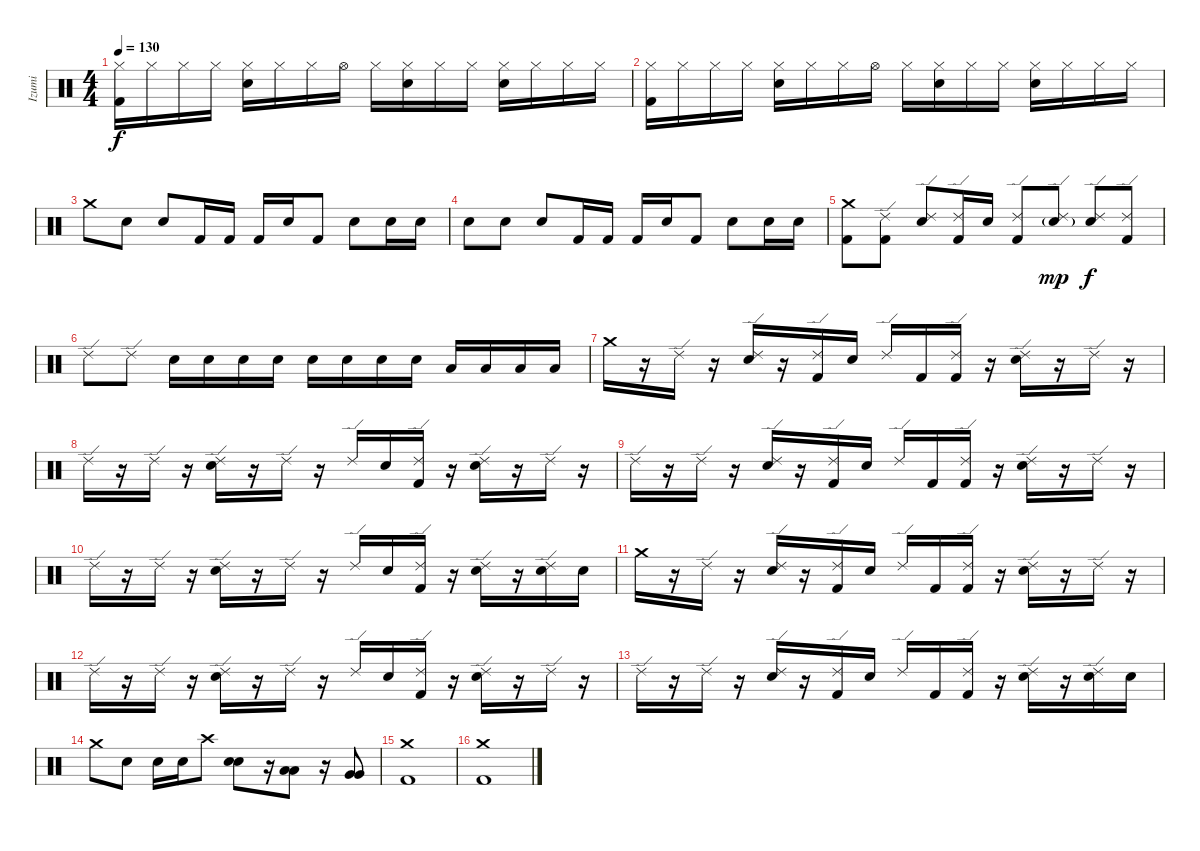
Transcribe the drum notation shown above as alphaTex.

\track ("Izumi" "Izumi") {instrument percussion}
\staff {score}
\articulation defaults
\ts (4 4)
\tempo 130
\clef neutral
\ks c
("Kick (hit) 2" "Hi-Hat (closed)").16{dy f} "Hi-Hat (closed)".16 "Hi-Hat (closed)".16 "Hi-Hat (closed)".16 ("Snare (hit) 2" "Hi-Hat (closed)").16 "Hi-Hat (closed)".16 "Hi-Hat (closed)".16 "Hi-Hat (open)".16 "Hi-Hat (closed)".16 ("Snare (hit) 2" "Hi-Hat (closed)").16 "Hi-Hat (closed)".16 "Hi-Hat (closed)".16 ("Snare (hit) 2" "Hi-Hat (closed)").16 "Hi-Hat (closed)".16 "Hi-Hat (closed)".16 "Hi-Hat (closed)".16 |
("Kick (hit) 2" "Hi-Hat (closed)").16 "Hi-Hat (closed)".16 "Hi-Hat (closed)".16 "Hi-Hat (closed)".16 ("Snare (hit) 2" "Hi-Hat (closed)").16 "Hi-Hat (closed)".16 "Hi-Hat (closed)".16 "Hi-Hat (open)".16 "Hi-Hat (closed)".16 ("Snare (hit) 2" "Hi-Hat (closed)").16 "Hi-Hat (closed)".16 "Hi-Hat (closed)".16 ("Snare (hit) 2" "Hi-Hat (closed)").16 "Hi-Hat (closed)".16 "Hi-Hat (closed)".16 "Hi-Hat (closed)".16 |
"Crash medium (hit)".8 "Snare (hit) 2".8 "Snare (hit) 2".8 "Kick (hit) 2".16 "Kick (hit) 2".16 "Kick (hit) 2".16 "Snare (hit) 2".16 "Kick (hit) 2".8 "Snare (hit) 2".8 "Snare (hit) 2".16 "Snare (hit) 2".16 |
"Snare (hit) 2".8 "Snare (hit) 2".8 "Snare (hit) 2".8 "Kick (hit) 2".16 "Kick (hit) 2".16 "Kick (hit) 2".16 "Snare (hit) 2".16 "Kick (hit) 2".8 "Snare (hit) 2".8 "Snare (hit) 2".16 "Snare (hit) 2".16 |
("Kick (hit) 2" "Crash medium (hit)").8 ("Kick (hit) 2" "Ride (edge) 2").8 ("Snare (hit) 2" "Ride (edge) 2").8 ("Kick (hit) 2" "Ride (edge) 2").16 "Snare (hit) 2".16 ("Kick (hit) 2" "Ride (edge) 2").8 ("Snare (hit) 2"{g} "Ride (edge) 2").8{dy mp} ("Snare (hit) 2" "Ride (edge) 2").8{dy f} ("Kick (hit) 2" "Ride (edge) 2").8 |
"Ride (edge) 2".8 "Ride (edge) 2".8 "Snare (hit) 2".16 "Snare (hit) 2".16 "Snare (hit) 2".16 "Snare (hit) 2".16 "Snare (hit) 2".16 "Snare (hit) 2".16 "Snare (hit) 2".16 "Snare (hit) 2".16 "Low Tom (hit)".16 "Low Tom (hit)".16 "Low Tom (hit)".16 "Low Tom (hit)".16 |
"Crash medium (hit)".16 r.16 "Ride (edge) 2".16 r.16 ("Snare (hit) 2" "Ride (edge) 2").16 r.16 ("Kick (hit) 2" "Ride (edge) 2").16 "Snare (hit) 2".16 "Ride (edge) 2".16 "Kick (hit) 2".16 ("Kick (hit) 2" "Ride (edge) 2").16 r.16 ("Snare (hit) 2" "Ride (edge) 2").16 r.16 "Ride (edge) 2".16 r.16 |
"Ride (edge) 2".16 r.16 "Ride (edge) 2".16 r.16 ("Snare (hit) 2" "Ride (edge) 2").16 r.16 "Ride (edge) 2".16 r.16 "Ride (edge) 2".16 "Snare (hit) 2".16 ("Kick (hit) 2" "Ride (edge) 2").16 r.16 ("Snare (hit) 2" "Ride (edge) 2").16 r.16 "Ride (edge) 2".16 r.16 |
"Ride (edge) 2".16 r.16 "Ride (edge) 2".16 r.16 ("Snare (hit) 2" "Ride (edge) 2").16 r.16 ("Kick (hit) 2" "Ride (edge) 2").16 "Snare (hit) 2".16 "Ride (edge) 2".16 "Kick (hit) 2".16 ("Kick (hit) 2" "Ride (edge) 2").16 r.16 ("Snare (hit) 2" "Ride (edge) 2").16 r.16 "Ride (edge) 2".16 r.16 |
"Ride (edge) 2".16 r.16 "Ride (edge) 2".16 r.16 ("Snare (hit) 2" "Ride (edge) 2").16 r.16 "Ride (edge) 2".16 r.16 "Ride (edge) 2".16 "Snare (hit) 2".16 ("Kick (hit) 2" "Ride (edge) 2").16 r.16 ("Snare (hit) 2" "Ride (edge) 2").16 r.16 ("Snare (hit) 2" "Ride (edge) 2").16 "Snare (hit) 2".16 |
"Crash medium (hit)".16 r.16 "Ride (edge) 2".16 r.16 ("Snare (hit) 2" "Ride (edge) 2").16 r.16 ("Kick (hit) 2" "Ride (edge) 2").16 "Snare (hit) 2".16 "Ride (edge) 2".16 "Kick (hit) 2".16 ("Kick (hit) 2" "Ride (edge) 2").16 r.16 ("Snare (hit) 2" "Ride (edge) 2").16 r.16 "Ride (edge) 2".16 r.16 |
"Ride (edge) 2".16 r.16 "Ride (edge) 2".16 r.16 ("Snare (hit) 2" "Ride (edge) 2").16 r.16 "Ride (edge) 2".16 r.16 "Ride (edge) 2".16 "Snare (hit) 2".16 ("Kick (hit) 2" "Ride (edge) 2").16 r.16 ("Snare (hit) 2" "Ride (edge) 2").16 r.16 "Ride (edge) 2".16 r.16 |
"Ride (edge) 2".16 r.16 "Ride (edge) 2".16 r.16 ("Snare (hit) 2" "Ride (edge) 2").16 r.16 ("Kick (hit) 2" "Ride (edge) 2").16 "Snare (hit) 2".16 "Ride (edge) 2".16 "Kick (hit) 2".16 ("Kick (hit) 2" "Ride (edge) 2").16 r.16 ("Snare (hit) 2" "Ride (edge) 2").16 r.16 ("Snare (hit) 2" "Ride (edge) 2").16 "Snare (hit) 2".16 |
"Crash medium (hit)".8 "Snare (hit) 2".8 "Snare (hit) 2".16 "Snare (hit) 2".16 "Crash high (hit)".8 ("Snare (hit) 2" "Snare (hit) 2").8 r.16 ("Low Tom (hit)" "Low Tom (hit)").8 r.16 ("Very Low Tom (hit)" "Very Low Tom (hit)").8 |
("Kick (hit) 2" "Crash medium (hit)").1 |
("Kick (hit) 2" "Crash medium (hit)").1
